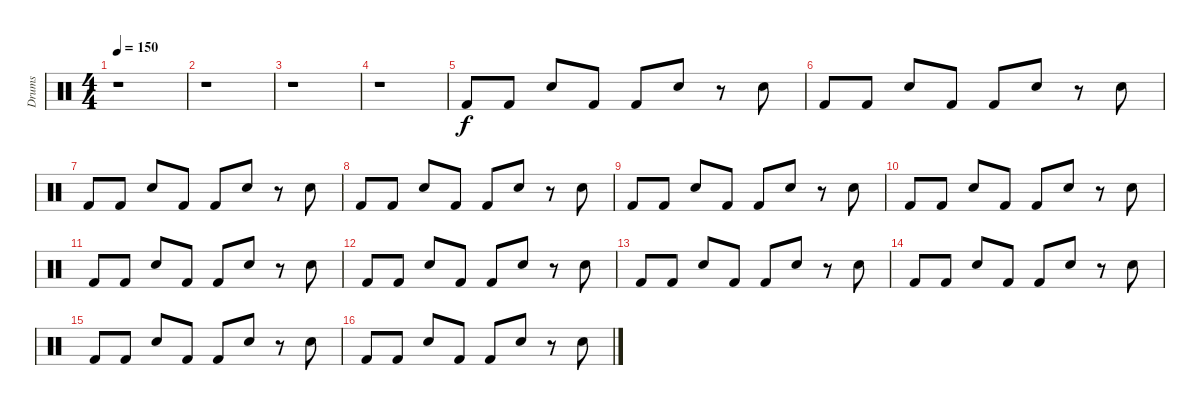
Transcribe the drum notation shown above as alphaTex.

\track ("Drums" "Drums") {instrument percussion}
\staff {score}
\articulation defaults
\ts (4 4)
\tempo 150
\clef neutral
\ks c
r.1{dy f} |
r.1 |
r.1 |
r.1 |
"Kick (hit) 2".8 "Kick (hit) 2".8 "Electric Snare (hit)".8 "Kick (hit) 2".8 "Kick (hit) 2".8 "Electric Snare (hit)".8 r.8 "Electric Snare (hit)".8 |
"Kick (hit) 2".8 "Kick (hit) 2".8 "Electric Snare (hit)".8 "Kick (hit) 2".8 "Kick (hit) 2".8 "Electric Snare (hit)".8 r.8 "Electric Snare (hit)".8 |
"Kick (hit) 2".8 "Kick (hit) 2".8 "Electric Snare (hit)".8 "Kick (hit) 2".8 "Kick (hit) 2".8 "Electric Snare (hit)".8 r.8 "Electric Snare (hit)".8 |
"Kick (hit) 2".8 "Kick (hit) 2".8 "Electric Snare (hit)".8 "Kick (hit) 2".8 "Kick (hit) 2".8 "Electric Snare (hit)".8 r.8 "Electric Snare (hit)".8 |
"Kick (hit) 2".8 "Kick (hit) 2".8 "Electric Snare (hit)".8 "Kick (hit) 2".8 "Kick (hit) 2".8 "Electric Snare (hit)".8 r.8 "Electric Snare (hit)".8 |
"Kick (hit) 2".8 "Kick (hit) 2".8 "Electric Snare (hit)".8 "Kick (hit) 2".8 "Kick (hit) 2".8 "Electric Snare (hit)".8 r.8 "Electric Snare (hit)".8 |
"Kick (hit) 2".8 "Kick (hit) 2".8 "Electric Snare (hit)".8 "Kick (hit) 2".8 "Kick (hit) 2".8 "Electric Snare (hit)".8 r.8 "Electric Snare (hit)".8 |
"Kick (hit) 2".8 "Kick (hit) 2".8 "Electric Snare (hit)".8 "Kick (hit) 2".8 "Kick (hit) 2".8 "Electric Snare (hit)".8 r.8 "Electric Snare (hit)".8 |
"Kick (hit) 2".8 "Kick (hit) 2".8 "Electric Snare (hit)".8 "Kick (hit) 2".8 "Kick (hit) 2".8 "Electric Snare (hit)".8 r.8 "Electric Snare (hit)".8 |
"Kick (hit) 2".8 "Kick (hit) 2".8 "Electric Snare (hit)".8 "Kick (hit) 2".8 "Kick (hit) 2".8 "Electric Snare (hit)".8 r.8 "Electric Snare (hit)".8 |
"Kick (hit) 2".8 "Kick (hit) 2".8 "Electric Snare (hit)".8 "Kick (hit) 2".8 "Kick (hit) 2".8 "Electric Snare (hit)".8 r.8 "Electric Snare (hit)".8 |
"Kick (hit) 2".8 "Kick (hit) 2".8 "Electric Snare (hit)".8 "Kick (hit) 2".8 "Kick (hit) 2".8 "Electric Snare (hit)".8 r.8 "Electric Snare (hit)".8
